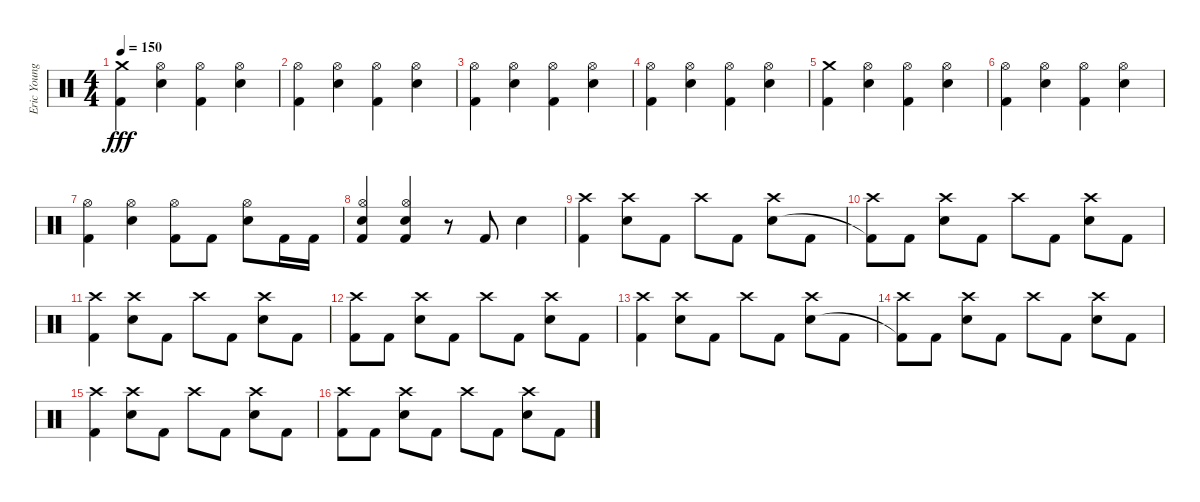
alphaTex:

\track ("Eric Young" "Eric Young") {instrument percussion}
\staff {score}
\articulation defaults
\ts (4 4)
\tempo 150
\clef neutral
\ks c
("Crash medium (hit)" "Kick (hit) 2").4{dy fff} ("Hi-Hat (open)" "Electric Snare (hit)").4 ("Hi-Hat (open)" "Kick (hit) 2").4 ("Hi-Hat (open)" "Electric Snare (hit)").4 |
("Hi-Hat (open)" "Kick (hit) 2").4 ("Hi-Hat (open)" "Electric Snare (hit)").4 ("Hi-Hat (open)" "Kick (hit) 2").4 ("Hi-Hat (open)" "Electric Snare (hit)").4 |
("Hi-Hat (open)" "Kick (hit) 2").4 ("Hi-Hat (open)" "Electric Snare (hit)").4 ("Hi-Hat (open)" "Kick (hit) 2").4 ("Hi-Hat (open)" "Electric Snare (hit)").4 |
("Hi-Hat (open)" "Kick (hit) 2").4 ("Hi-Hat (open)" "Electric Snare (hit)").4 ("Hi-Hat (open)" "Kick (hit) 2").4 ("Hi-Hat (open)" "Electric Snare (hit)").4 |
("Crash medium (hit)" "Kick (hit) 2").4 ("Hi-Hat (open)" "Electric Snare (hit)").4 ("Hi-Hat (open)" "Kick (hit) 2").4 ("Hi-Hat (open)" "Electric Snare (hit)").4 |
("Hi-Hat (open)" "Kick (hit) 2").4 ("Hi-Hat (open)" "Electric Snare (hit)").4 ("Hi-Hat (open)" "Kick (hit) 2").4 ("Hi-Hat (open)" "Electric Snare (hit)").4 |
("Hi-Hat (open)" "Kick (hit) 2").4 ("Hi-Hat (open)" "Electric Snare (hit)").4 ("Hi-Hat (open)" "Kick (hit) 2").8 "Kick (hit) 2".8 ("Hi-Hat (open)" "Electric Snare (hit)").8 "Kick (hit) 2".16 "Kick (hit) 2".16 |
("Hi-Hat (open)" "Electric Snare (hit)" "Kick (hit) 2").4 ("Hi-Hat (open)" "Electric Snare (hit)" "Kick (hit) 2").4 r.8 "Kick (hit) 2".8 "Electric Snare (hit)".4 |
("Crash high (hit)" "Kick (hit) 2").4 ("Crash high (hit)" "Electric Snare (hit)").8 "Kick (hit) 2".8 "Crash high (hit)".8 "Kick (hit) 2".8 ("Crash high (hit)" "Electric Snare (hit)").8 "Kick (hit) 2".8 |
("Crash high (hit)" "Kick (hit) 2"{t}).8 "Kick (hit) 2".8 ("Crash high (hit)" "Electric Snare (hit)").8 "Kick (hit) 2".8 "Crash high (hit)".8 "Kick (hit) 2".8 ("Crash high (hit)" "Electric Snare (hit)").8 "Kick (hit) 2".8 |
("Crash high (hit)" "Kick (hit) 2").4 ("Crash high (hit)" "Electric Snare (hit)").8 "Kick (hit) 2".8 "Crash high (hit)".8 "Kick (hit) 2".8 ("Crash high (hit)" "Electric Snare (hit)").8 "Kick (hit) 2".8 |
("Crash high (hit)" "Kick (hit) 2").8 "Kick (hit) 2".8 ("Crash high (hit)" "Electric Snare (hit)").8 "Kick (hit) 2".8 "Crash high (hit)".8 "Kick (hit) 2".8 ("Crash high (hit)" "Electric Snare (hit)").8 "Kick (hit) 2".8 |
("Crash high (hit)" "Kick (hit) 2").4 ("Crash high (hit)" "Electric Snare (hit)").8 "Kick (hit) 2".8 "Crash high (hit)".8 "Kick (hit) 2".8 ("Crash high (hit)" "Electric Snare (hit)").8 "Kick (hit) 2".8 |
("Crash high (hit)" "Kick (hit) 2"{t}).8 "Kick (hit) 2".8 ("Crash high (hit)" "Electric Snare (hit)").8 "Kick (hit) 2".8 "Crash high (hit)".8 "Kick (hit) 2".8 ("Crash high (hit)" "Electric Snare (hit)").8 "Kick (hit) 2".8 |
("Crash high (hit)" "Kick (hit) 2").4 ("Crash high (hit)" "Electric Snare (hit)").8 "Kick (hit) 2".8 "Crash high (hit)".8 "Kick (hit) 2".8 ("Crash high (hit)" "Electric Snare (hit)").8 "Kick (hit) 2".8 |
("Crash high (hit)" "Kick (hit) 2").8 "Kick (hit) 2".8 ("Crash high (hit)" "Electric Snare (hit)").8 "Kick (hit) 2".8 "Crash high (hit)".8 "Kick (hit) 2".8 ("Crash high (hit)" "Electric Snare (hit)").8 "Kick (hit) 2".8
